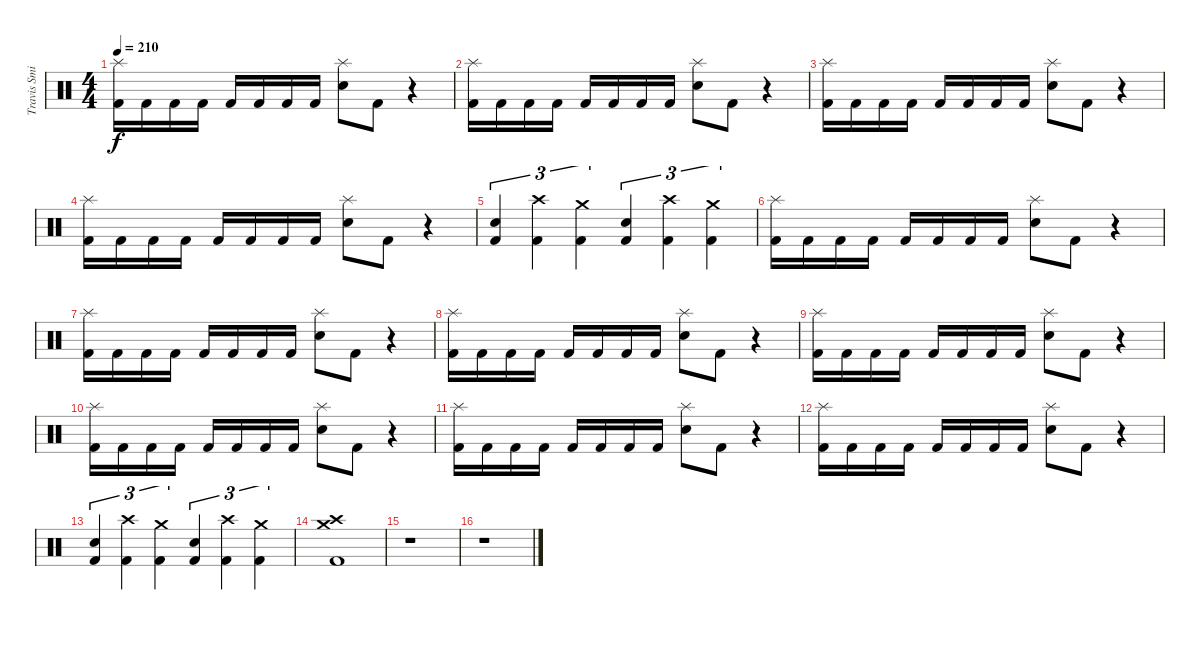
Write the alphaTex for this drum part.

\track ("Travis Smith" "Travis Smi") {instrument percussion}
\staff {score}
\articulation defaults
\ts (4 4)
\tempo 210
\clef neutral
\ks c
("Splash (hit)" "Kick (hit) 2").16{dy f} "Kick (hit) 2".16 "Kick (hit) 2".16 "Kick (hit) 2".16 "Kick (hit) 2".16 "Kick (hit) 2".16 "Kick (hit) 2".16 "Kick (hit) 2".16 ("Splash (hit)" "Snare (hit) 2").8 "Kick (hit) 2".8 r.4 |
("Splash (hit)" "Kick (hit) 2").16 "Kick (hit) 2".16 "Kick (hit) 2".16 "Kick (hit) 2".16 "Kick (hit) 2".16 "Kick (hit) 2".16 "Kick (hit) 2".16 "Kick (hit) 2".16 ("Splash (hit)" "Snare (hit) 2").8 "Kick (hit) 2".8 r.4 |
("Splash (hit)" "Kick (hit) 2").16 "Kick (hit) 2".16 "Kick (hit) 2".16 "Kick (hit) 2".16 "Kick (hit) 2".16 "Kick (hit) 2".16 "Kick (hit) 2".16 "Kick (hit) 2".16 ("Splash (hit)" "Snare (hit) 2").8 "Kick (hit) 2".8 r.4 |
("Splash (hit)" "Kick (hit) 2").16 "Kick (hit) 2".16 "Kick (hit) 2".16 "Kick (hit) 2".16 "Kick (hit) 2".16 "Kick (hit) 2".16 "Kick (hit) 2".16 "Kick (hit) 2".16 ("Splash (hit)" "Snare (hit) 2").8 "Kick (hit) 2".8 r.4 |
("Snare (hit) 2" "Kick (hit) 2").4{tu (3 2)} ("Crash high (hit)" "Kick (hit) 2").4{tu (3 2)} ("Crash medium (hit)" "Kick (hit) 2").4{tu (3 2)} ("Snare (hit) 2" "Kick (hit) 2").4{tu (3 2)} ("Crash high (hit)" "Kick (hit) 2").4{tu (3 2)} ("Crash medium (hit)" "Kick (hit) 2").4{tu (3 2)} |
("Splash (hit)" "Kick (hit) 2").16 "Kick (hit) 2".16 "Kick (hit) 2".16 "Kick (hit) 2".16 "Kick (hit) 2".16 "Kick (hit) 2".16 "Kick (hit) 2".16 "Kick (hit) 2".16 ("Splash (hit)" "Snare (hit) 2").8 "Kick (hit) 2".8 r.4 |
("Splash (hit)" "Kick (hit) 2").16 "Kick (hit) 2".16 "Kick (hit) 2".16 "Kick (hit) 2".16 "Kick (hit) 2".16 "Kick (hit) 2".16 "Kick (hit) 2".16 "Kick (hit) 2".16 ("Splash (hit)" "Snare (hit) 2").8 "Kick (hit) 2".8 r.4 |
("Splash (hit)" "Kick (hit) 2").16 "Kick (hit) 2".16 "Kick (hit) 2".16 "Kick (hit) 2".16 "Kick (hit) 2".16 "Kick (hit) 2".16 "Kick (hit) 2".16 "Kick (hit) 2".16 ("Splash (hit)" "Snare (hit) 2").8 "Kick (hit) 2".8 r.4 |
("Splash (hit)" "Kick (hit) 2").16 "Kick (hit) 2".16 "Kick (hit) 2".16 "Kick (hit) 2".16 "Kick (hit) 2".16 "Kick (hit) 2".16 "Kick (hit) 2".16 "Kick (hit) 2".16 ("Splash (hit)" "Snare (hit) 2").8 "Kick (hit) 2".8 r.4 |
("Splash (hit)" "Kick (hit) 2").16 "Kick (hit) 2".16 "Kick (hit) 2".16 "Kick (hit) 2".16 "Kick (hit) 2".16 "Kick (hit) 2".16 "Kick (hit) 2".16 "Kick (hit) 2".16 ("Splash (hit)" "Snare (hit) 2").8 "Kick (hit) 2".8 r.4 |
("Splash (hit)" "Kick (hit) 2").16 "Kick (hit) 2".16 "Kick (hit) 2".16 "Kick (hit) 2".16 "Kick (hit) 2".16 "Kick (hit) 2".16 "Kick (hit) 2".16 "Kick (hit) 2".16 ("Splash (hit)" "Snare (hit) 2").8 "Kick (hit) 2".8 r.4 |
("Splash (hit)" "Kick (hit) 2").16 "Kick (hit) 2".16 "Kick (hit) 2".16 "Kick (hit) 2".16 "Kick (hit) 2".16 "Kick (hit) 2".16 "Kick (hit) 2".16 "Kick (hit) 2".16 ("Splash (hit)" "Snare (hit) 2").8 "Kick (hit) 2".8 r.4 |
("Snare (hit) 2" "Kick (hit) 2").4{tu (3 2)} ("Crash high (hit)" "Kick (hit) 2").4{tu (3 2)} ("Crash medium (hit)" "Kick (hit) 2").4{tu (3 2)} ("Snare (hit) 2" "Kick (hit) 2").4{tu (3 2)} ("Crash high (hit)" "Kick (hit) 2").4{tu (3 2)} ("Crash medium (hit)" "Kick (hit) 2").4{tu (3 2)} |
("Crash medium (hit)" "Crash high (hit)" "Kick (hit) 2").1 |
r.1 |
r.1
